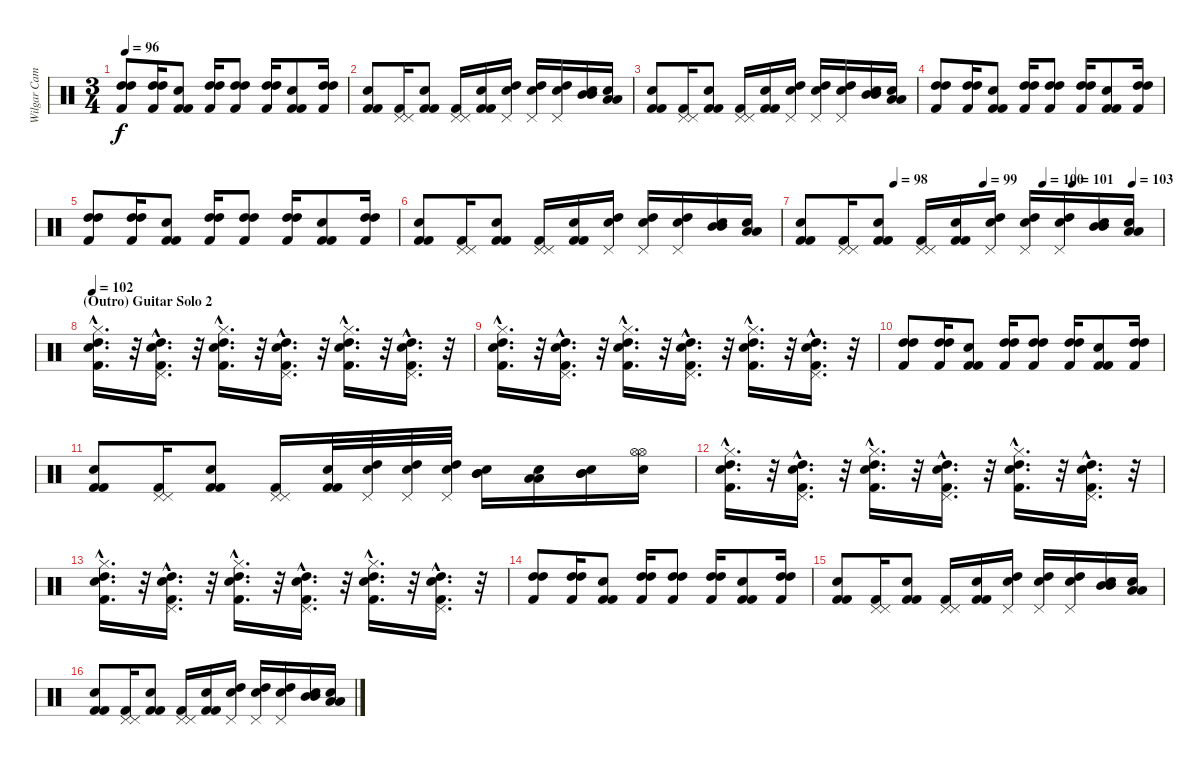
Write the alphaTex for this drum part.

\track ("Wilgar Campbell" "Wilgar Cam") {instrument percussion}
\staff {score}
\articulation defaults
\ts (3 4)
\tempo 96
\clef neutral
\ks c
("High Tom (hit)" "High Tom (hit)" "Kick (hit) 2").8{dy f} ("High Tom (hit)" "High Tom (hit)" "Kick (hit) 2").16 ("Snare (hit) 2" "Kick (hit) 2" "Kick (hit) 2").8 ("High Tom (hit)" "High Tom (hit)" "Kick (hit) 2").16 ("High Tom (hit)" "High Tom (hit)" "Kick (hit) 2").8 ("High Tom (hit)" "High Tom (hit)" "Kick (hit) 2").16 ("Snare (hit) 2" "Kick (hit) 2" "Kick (hit) 2").8 ("High Tom (hit)" "High Tom (hit)" "Kick (hit) 2").16 |
("Electric Snare (hit)" "Kick (hit) 2" "Kick (hit) 2").8 ("Pedal Hi-Hat (hit)" "Pedal Hi-Hat (hit)" "Kick (hit) 2").16 ("Snare (hit) 2" "Kick (hit) 2" "Kick (hit) 2").8 ("Pedal Hi-Hat (hit)" "Pedal Hi-Hat (hit)" "Kick (hit) 2").16 ("Snare (hit) 2" "Kick (hit) 2" "Kick (hit) 2").16 ("Electric Snare (hit)" "Pedal Hi-Hat (hit)" "High Tom (hit)").16 ("Electric Snare (hit)" "Pedal Hi-Hat (hit)" "High Tom (hit)").16 ("Electric Snare (hit)" "Pedal Hi-Hat (hit)" "High Tom (hit)").16 ("Electric Snare (hit)" "Mid Tom (hit)" "Mid Tom (hit)").16 ("Electric Snare (hit)" "Low Tom (hit)" "Low Tom (hit)").16 |
("Electric Snare (hit)" "Kick (hit) 2" "Kick (hit) 2").8 ("Pedal Hi-Hat (hit)" "Pedal Hi-Hat (hit)" "Kick (hit) 2").16 ("Snare (hit) 2" "Kick (hit) 2" "Kick (hit) 2").8 ("Pedal Hi-Hat (hit)" "Pedal Hi-Hat (hit)" "Kick (hit) 2").16 ("Snare (hit) 2" "Kick (hit) 2" "Kick (hit) 2").16 ("Electric Snare (hit)" "Pedal Hi-Hat (hit)" "High Tom (hit)").16 ("Electric Snare (hit)" "Pedal Hi-Hat (hit)" "High Tom (hit)").16 ("Electric Snare (hit)" "Pedal Hi-Hat (hit)" "High Tom (hit)").16 ("Electric Snare (hit)" "Mid Tom (hit)" "Mid Tom (hit)").16 ("Electric Snare (hit)" "Low Tom (hit)" "Low Tom (hit)").16 |
("High Tom (hit)" "High Tom (hit)" "Kick (hit) 2").8 ("High Tom (hit)" "High Tom (hit)" "Kick (hit) 2").16 ("Snare (hit) 2" "Kick (hit) 2" "Kick (hit) 2").8 ("High Tom (hit)" "High Tom (hit)" "Kick (hit) 2").16 ("High Tom (hit)" "High Tom (hit)" "Kick (hit) 2").8 ("High Tom (hit)" "High Tom (hit)" "Kick (hit) 2").16 ("Snare (hit) 2" "Kick (hit) 2" "Kick (hit) 2").8 ("High Tom (hit)" "High Tom (hit)" "Kick (hit) 2").16 |
("High Tom (hit)" "High Tom (hit)" "Kick (hit) 2").8 ("High Tom (hit)" "High Tom (hit)" "Kick (hit) 2").16 ("Snare (hit) 2" "Kick (hit) 2" "Kick (hit) 2").8 ("High Tom (hit)" "High Tom (hit)" "Kick (hit) 2").16 ("High Tom (hit)" "High Tom (hit)" "Kick (hit) 2").8 ("High Tom (hit)" "High Tom (hit)" "Kick (hit) 2").16 ("Snare (hit) 2" "Kick (hit) 2" "Kick (hit) 2").8 ("High Tom (hit)" "High Tom (hit)" "Kick (hit) 2").16 |
("Electric Snare (hit)" "Kick (hit) 2" "Kick (hit) 2").8 ("Pedal Hi-Hat (hit)" "Pedal Hi-Hat (hit)" "Kick (hit) 2").16 ("Snare (hit) 2" "Kick (hit) 2" "Kick (hit) 2").8 ("Pedal Hi-Hat (hit)" "Pedal Hi-Hat (hit)" "Kick (hit) 2").16 ("Snare (hit) 2" "Kick (hit) 2" "Kick (hit) 2").16 ("Electric Snare (hit)" "Pedal Hi-Hat (hit)" "High Tom (hit)").16 ("Electric Snare (hit)" "Pedal Hi-Hat (hit)" "High Tom (hit)").16 ("Electric Snare (hit)" "Pedal Hi-Hat (hit)" "High Tom (hit)").16 ("Electric Snare (hit)" "Mid Tom (hit)" "Mid Tom (hit)").16 ("Electric Snare (hit)" "Low Tom (hit)" "Low Tom (hit)").16 |
\tempo (98 0.25)
\tempo (99 0.5)
\tempo (100 0.6666666666666666)
\tempo (101 0.75)
\tempo (103 0.9166666666666666)
("Electric Snare (hit)" "Kick (hit) 2" "Kick (hit) 2").8 ("Pedal Hi-Hat (hit)" "Pedal Hi-Hat (hit)" "Kick (hit) 2").16 ("Snare (hit) 2" "Kick (hit) 2" "Kick (hit) 2").8 ("Pedal Hi-Hat (hit)" "Pedal Hi-Hat (hit)" "Kick (hit) 2").16 ("Snare (hit) 2" "Kick (hit) 2" "Kick (hit) 2").16 ("Electric Snare (hit)" "Pedal Hi-Hat (hit)" "High Tom (hit)").16 ("Electric Snare (hit)" "Pedal Hi-Hat (hit)" "High Tom (hit)").16 ("Electric Snare (hit)" "Pedal Hi-Hat (hit)" "High Tom (hit)").16 ("Electric Snare (hit)" "Mid Tom (hit)" "Mid Tom (hit)").16 ("Electric Snare (hit)" "Low Tom (hit)" "Low Tom (hit)").16 |
\section ("" "(Outro) Guitar Solo 2")
\tempo 102
("Hi-Hat (closed)"{hac} "Snare (hit) 2"{hac} "High Tom (hit)"{hac} "Kick (hit) 2"{hac}).16{d} r.32 ("Pedal Hi-Hat (hit)"{hac} "Snare (hit) 2"{hac} "High Tom (hit)"{hac} "Kick (hit) 2"{hac}).16{d} r.32 ("Hi-Hat (closed)"{hac} "Snare (hit) 2"{hac} "High Tom (hit)"{hac} "Kick (hit) 2"{hac}).16{d} r.32 ("Pedal Hi-Hat (hit)"{hac} "Snare (hit) 2"{hac} "High Tom (hit)"{hac} "Kick (hit) 2"{hac}).16{d} r.32 ("Hi-Hat (closed)"{hac} "Snare (hit) 2"{hac} "High Tom (hit)"{hac} "Kick (hit) 2"{hac}).16{d} r.32 ("Pedal Hi-Hat (hit)"{hac} "Snare (hit) 2"{hac} "High Tom (hit)"{hac} "Kick (hit) 2"{hac}).16{d} r.32 |
("Hi-Hat (closed)"{hac} "Snare (hit) 2"{hac} "High Tom (hit)"{hac} "Kick (hit) 2"{hac}).16{d} r.32 ("Pedal Hi-Hat (hit)"{hac} "Snare (hit) 2"{hac} "High Tom (hit)"{hac} "Kick (hit) 2"{hac}).16{d} r.32 ("Hi-Hat (closed)"{hac} "Snare (hit) 2"{hac} "High Tom (hit)"{hac} "Kick (hit) 2"{hac}).16{d} r.32 ("Pedal Hi-Hat (hit)"{hac} "Snare (hit) 2"{hac} "High Tom (hit)"{hac} "Kick (hit) 2"{hac}).16{d} r.32 ("Hi-Hat (closed)"{hac} "Snare (hit) 2"{hac} "High Tom (hit)"{hac} "Kick (hit) 2"{hac}).16{d} r.32 ("Pedal Hi-Hat (hit)"{hac} "Snare (hit) 2"{hac} "High Tom (hit)"{hac} "Kick (hit) 2"{hac}).16{d} r.32 |
("High Tom (hit)" "High Tom (hit)" "Kick (hit) 2").8 ("High Tom (hit)" "High Tom (hit)" "Kick (hit) 2").16 ("Snare (hit) 2" "Kick (hit) 2" "Kick (hit) 2").8 ("High Tom (hit)" "High Tom (hit)" "Kick (hit) 2").16 ("High Tom (hit)" "High Tom (hit)" "Kick (hit) 2").8 ("High Tom (hit)" "High Tom (hit)" "Kick (hit) 2").16 ("Snare (hit) 2" "Kick (hit) 2" "Kick (hit) 2").8 ("High Tom (hit)" "High Tom (hit)" "Kick (hit) 2").16 |
("Electric Snare (hit)" "Kick (hit) 2" "Kick (hit) 2").8 ("Pedal Hi-Hat (hit)" "Pedal Hi-Hat (hit)" "Kick (hit) 2").16 ("Snare (hit) 2" "Kick (hit) 2" "Kick (hit) 2").8 ("Pedal Hi-Hat (hit)" "Pedal Hi-Hat (hit)" "Kick (hit) 2").16 ("Snare (hit) 2" "Kick (hit) 2" "Kick (hit) 2").32 ("Electric Snare (hit)" "Pedal Hi-Hat (hit)" "High Tom (hit)").32 ("Electric Snare (hit)" "Pedal Hi-Hat (hit)" "High Tom (hit)").32 ("Electric Snare (hit)" "Pedal Hi-Hat (hit)" "High Tom (hit)").32 ("Electric Snare (hit)" "Mid Tom (hit)" "Mid Tom (hit)").16 ("Electric Snare (hit)" "Low Tom (hit)" "Low Tom (hit)").16 ("Electric Snare (hit)" "Mid Tom (hit)" "Mid Tom (hit)").16 ("Electric Snare (hit)" "Hi-Hat (open)" "Hi-Hat (open)").16 |
("Hi-Hat (closed)"{hac} "Snare (hit) 2"{hac} "High Tom (hit)"{hac} "Kick (hit) 2"{hac}).16{d} r.32 ("Pedal Hi-Hat (hit)"{hac} "Snare (hit) 2"{hac} "High Tom (hit)"{hac} "Kick (hit) 2"{hac}).16{d} r.32 ("Hi-Hat (closed)"{hac} "Snare (hit) 2"{hac} "High Tom (hit)"{hac} "Kick (hit) 2"{hac}).16{d} r.32 ("Pedal Hi-Hat (hit)"{hac} "Snare (hit) 2"{hac} "High Tom (hit)"{hac} "Kick (hit) 2"{hac}).16{d} r.32 ("Hi-Hat (closed)"{hac} "Snare (hit) 2"{hac} "High Tom (hit)"{hac} "Kick (hit) 2"{hac}).16{d} r.32 ("Pedal Hi-Hat (hit)"{hac} "Snare (hit) 2"{hac} "High Tom (hit)"{hac} "Kick (hit) 2"{hac}).16{d} r.32 |
("Hi-Hat (closed)"{hac} "Snare (hit) 2"{hac} "High Tom (hit)"{hac} "Kick (hit) 2"{hac}).16{d} r.32 ("Pedal Hi-Hat (hit)"{hac} "Snare (hit) 2"{hac} "High Tom (hit)"{hac} "Kick (hit) 2"{hac}).16{d} r.32 ("Hi-Hat (closed)"{hac} "Snare (hit) 2"{hac} "High Tom (hit)"{hac} "Kick (hit) 2"{hac}).16{d} r.32 ("Pedal Hi-Hat (hit)"{hac} "Snare (hit) 2"{hac} "High Tom (hit)"{hac} "Kick (hit) 2"{hac}).16{d} r.32 ("Hi-Hat (closed)"{hac} "Snare (hit) 2"{hac} "High Tom (hit)"{hac} "Kick (hit) 2"{hac}).16{d} r.32 ("Pedal Hi-Hat (hit)"{hac} "Snare (hit) 2"{hac} "High Tom (hit)"{hac} "Kick (hit) 2"{hac}).16{d} r.32 |
("High Tom (hit)" "High Tom (hit)" "Kick (hit) 2").8 ("High Tom (hit)" "High Tom (hit)" "Kick (hit) 2").16 ("Snare (hit) 2" "Kick (hit) 2" "Kick (hit) 2").8 ("High Tom (hit)" "High Tom (hit)" "Kick (hit) 2").16 ("High Tom (hit)" "High Tom (hit)" "Kick (hit) 2").8 ("High Tom (hit)" "High Tom (hit)" "Kick (hit) 2").16 ("Snare (hit) 2" "Kick (hit) 2" "Kick (hit) 2").8 ("High Tom (hit)" "High Tom (hit)" "Kick (hit) 2").16 |
("Electric Snare (hit)" "Kick (hit) 2" "Kick (hit) 2").8 ("Pedal Hi-Hat (hit)" "Pedal Hi-Hat (hit)" "Kick (hit) 2").16 ("Snare (hit) 2" "Kick (hit) 2" "Kick (hit) 2").8 ("Pedal Hi-Hat (hit)" "Pedal Hi-Hat (hit)" "Kick (hit) 2").16 ("Snare (hit) 2" "Kick (hit) 2" "Kick (hit) 2").16 ("Electric Snare (hit)" "Pedal Hi-Hat (hit)" "High Tom (hit)").16 ("Electric Snare (hit)" "Pedal Hi-Hat (hit)" "High Tom (hit)").16 ("Electric Snare (hit)" "Pedal Hi-Hat (hit)" "High Tom (hit)").16 ("Electric Snare (hit)" "Mid Tom (hit)" "Mid Tom (hit)").16 ("Electric Snare (hit)" "Low Tom (hit)" "Low Tom (hit)").16 |
("Electric Snare (hit)" "Kick (hit) 2" "Kick (hit) 2").8 ("Pedal Hi-Hat (hit)" "Pedal Hi-Hat (hit)" "Kick (hit) 2").16 ("Snare (hit) 2" "Kick (hit) 2" "Kick (hit) 2").8 ("Pedal Hi-Hat (hit)" "Pedal Hi-Hat (hit)" "Kick (hit) 2").16 ("Snare (hit) 2" "Kick (hit) 2" "Kick (hit) 2").16 ("Electric Snare (hit)" "Pedal Hi-Hat (hit)" "High Tom (hit)").16 ("Electric Snare (hit)" "Pedal Hi-Hat (hit)" "High Tom (hit)").16 ("Electric Snare (hit)" "Pedal Hi-Hat (hit)" "High Tom (hit)").16 ("Electric Snare (hit)" "Mid Tom (hit)" "Mid Tom (hit)").16 ("Electric Snare (hit)" "Low Tom (hit)" "Low Tom (hit)").16
